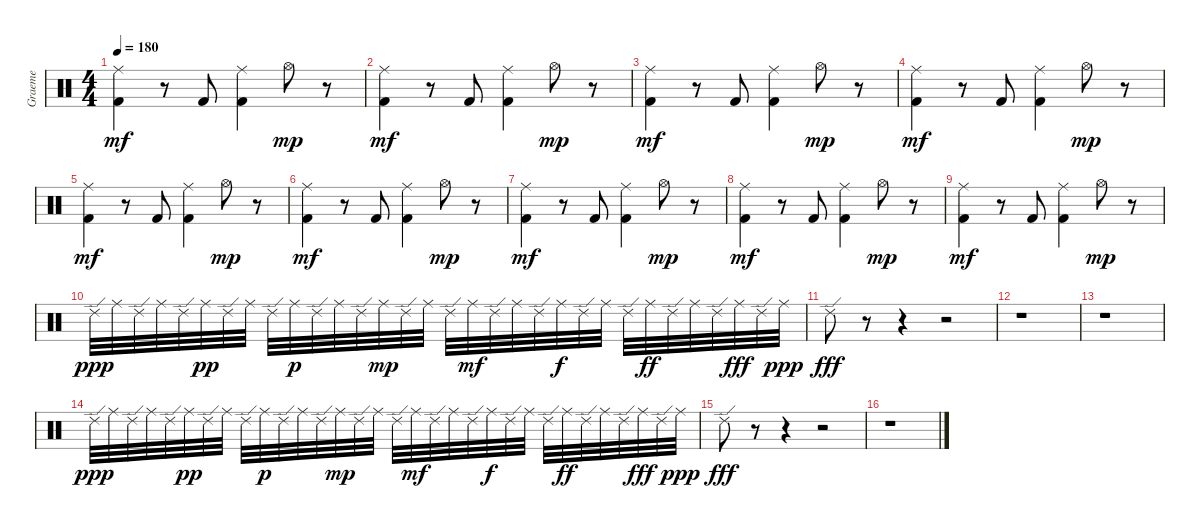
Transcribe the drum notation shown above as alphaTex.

\track ("Graeme" "Graeme") {instrument percussion}
\staff {score}
\articulation defaults
\ts (4 4)
\tempo 180
\clef neutral
\ks c
("Ride (middle)" "Kick (hit) 2").4{dy mf} r.8 "Kick (hit) 2".8 ("Ride (middle)" "Kick (hit) 2").4 "Hi-Hat (open)".8{dy mp} r.8 |
("Ride (middle)" "Kick (hit) 2").4{dy mf} r.8 "Kick (hit) 2".8 ("Ride (middle)" "Kick (hit) 2").4 "Hi-Hat (open)".8{dy mp} r.8 |
("Ride (middle)" "Kick (hit) 2").4{dy mf} r.8 "Kick (hit) 2".8 ("Ride (middle)" "Kick (hit) 2").4 "Hi-Hat (open)".8{dy mp} r.8 |
("Ride (middle)" "Kick (hit) 2").4{dy mf} r.8 "Kick (hit) 2".8 ("Ride (middle)" "Kick (hit) 2").4 "Hi-Hat (open)".8{dy mp} r.8 |
("Ride (middle)" "Kick (hit) 2").4{dy mf} r.8 "Kick (hit) 2".8 ("Ride (middle)" "Kick (hit) 2").4 "Hi-Hat (open)".8{dy mp} r.8 |
("Ride (middle)" "Kick (hit) 2").4{dy mf} r.8 "Kick (hit) 2".8 ("Ride (middle)" "Kick (hit) 2").4 "Hi-Hat (open)".8{dy mp} r.8 |
("Ride (middle)" "Kick (hit) 2").4{dy mf} r.8 "Kick (hit) 2".8 ("Ride (middle)" "Kick (hit) 2").4 "Hi-Hat (open)".8{dy mp} r.8 |
("Ride (middle)" "Kick (hit) 2").4{dy mf} r.8 "Kick (hit) 2".8 ("Ride (middle)" "Kick (hit) 2").4 "Hi-Hat (open)".8{dy mp} r.8 |
("Ride (middle)" "Kick (hit) 2").4{dy mf} r.8 "Kick (hit) 2".8 ("Ride (middle)" "Kick (hit) 2").4 "Hi-Hat (open)".8{dy mp} r.8 |
"Ride (edge) 2".32{dy ppp} "Ride (middle)".32 "Ride (edge) 2".32 "Ride (middle)".32 "Ride (edge) 2".32 "Ride (middle)".32{dy pp} "Ride (edge) 2".32 "Ride (middle)".32 "Ride (edge) 2".32 "Ride (middle)".32{dy p} "Ride (edge) 2".32 "Ride (middle)".32 "Ride (edge) 2".32 "Ride (middle)".32{dy mp} "Ride (edge) 2".32 "Ride (middle)".32 "Ride (edge) 2".32 "Ride (middle)".32{dy mf} "Ride (edge) 2".32 "Ride (middle)".32 "Ride (edge) 2".32 "Ride (middle)".32{dy f} "Ride (edge) 2".32 "Ride (middle)".32 "Ride (edge) 2".32 "Ride (middle)".32{dy ff} "Ride (edge) 2".32 "Ride (middle)".32 "Ride (edge) 2".32 "Ride (middle)".32{dy fff} "Ride (edge) 2".32 "Ride (middle)".32{dy ppp} |
"Ride (edge) 2".8{dy fff} r.8 r.4 r.2 |
r.1 |
r.1 |
"Ride (edge) 2".32{dy ppp} "Ride (middle)".32 "Ride (edge) 2".32 "Ride (middle)".32 "Ride (edge) 2".32 "Ride (middle)".32{dy pp} "Ride (edge) 2".32 "Ride (middle)".32 "Ride (edge) 2".32 "Ride (middle)".32{dy p} "Ride (edge) 2".32 "Ride (middle)".32 "Ride (edge) 2".32 "Ride (middle)".32{dy mp} "Ride (edge) 2".32 "Ride (middle)".32 "Ride (edge) 2".32 "Ride (middle)".32{dy mf} "Ride (edge) 2".32 "Ride (middle)".32 "Ride (edge) 2".32 "Ride (middle)".32{dy f} "Ride (edge) 2".32 "Ride (middle)".32 "Ride (edge) 2".32 "Ride (middle)".32{dy ff} "Ride (edge) 2".32 "Ride (middle)".32 "Ride (edge) 2".32 "Ride (middle)".32{dy fff} "Ride (edge) 2".32 "Ride (middle)".32{dy ppp} |
"Ride (edge) 2".8{dy fff} r.8 r.4 r.2 |
r.1
